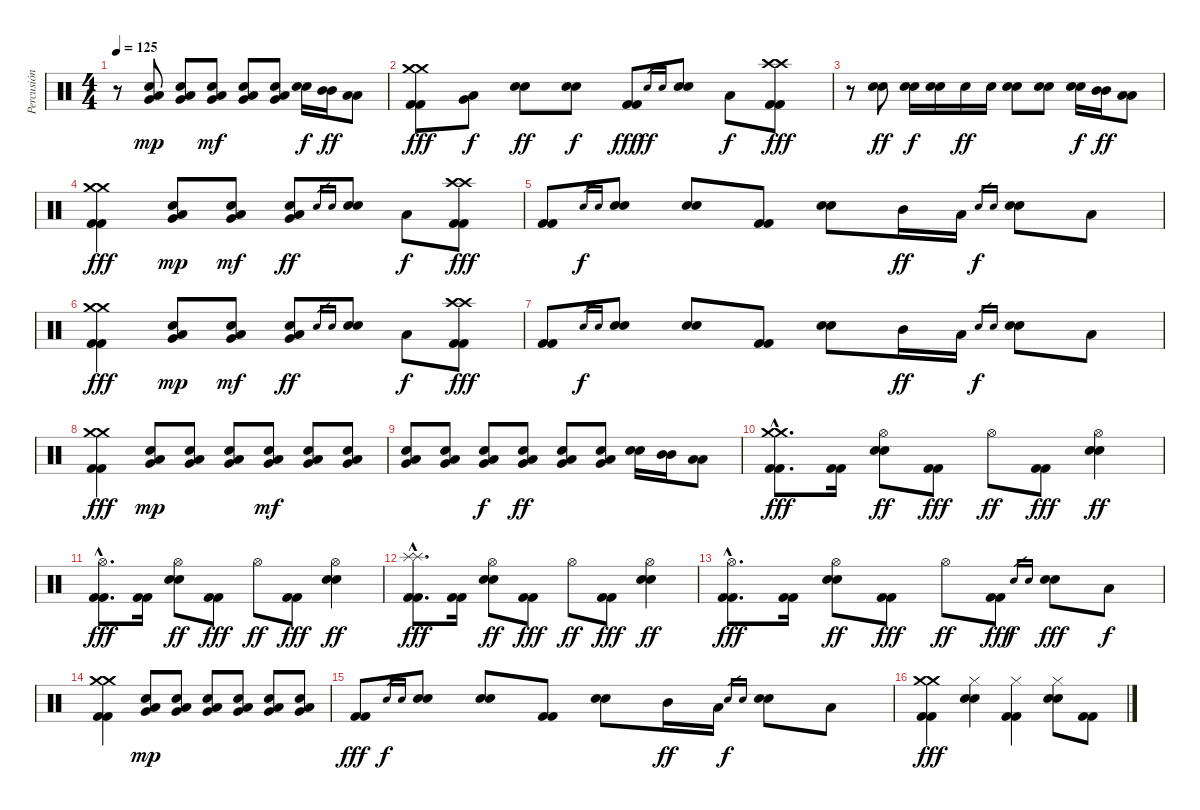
\track ("Percusión" "Percusión") {instrument percussion}
\staff {score}
\articulation defaults
\ts (4 4)
\tempo 125
\clef neutral
\ks c
r.8{dy fff} ("Electric Snare (hit)" "Low Tom (hit)" "Very Low Tom (hit)").8{dy mp} ("Electric Snare (hit)" "Low Tom (hit)" "Very Low Tom (hit)").8 ("Electric Snare (hit)" "Low Tom (hit)" "Very Low Tom (hit)").8{dy mf} ("Electric Snare (hit)" "Low Tom (hit)" "Very Low Tom (hit)").8 ("Electric Snare (hit)" "Low Tom (hit)" "Very Low Tom (hit)").8 ("Electric Snare (hit)" "Electric Snare (hit)").16{dy f} ("Mid Tom (hit)" "Mid Tom (hit)").16{dy ff} ("Low Tom (hit)" "Low Tom (hit)").8 |
("Crash medium (hit)" "Crash medium (hit)" "Kick (hit) 2" "Kick (hit) 2").8{dy fff} ("Very Low Tom (hit)" "Low Tom (hit)").8{dy f} ("Electric Snare (hit)" "Electric Snare (hit)").8{dy ff} ("Electric Snare (hit)" "Electric Snare (hit)").8{dy f} ("Kick (hit) 2" "Kick (hit) 2").8{dy fff} "Electric Snare (hit)".16{gr dy ff} "Electric Snare (hit)".16{gr} ("Electric Snare (hit)" "Electric Snare (hit)").8 "Low Tom (hit)".8{dy f} ("Crash high (hit)" "Crash high (hit)" "Kick (hit) 2" "Kick (hit) 2").8{dy fff} |
r.8 ("Electric Snare (hit)" "Electric Snare (hit)").8{dy ff} ("Electric Snare (hit)" "Electric Snare (hit)").16{dy f} ("Electric Snare (hit)" "Electric Snare (hit)").16 "Electric Snare (hit)".16{dy ff} "Electric Snare (hit)".16 ("Electric Snare (hit)" "Electric Snare (hit)").8 ("Electric Snare (hit)" "Electric Snare (hit)").8 ("Electric Snare (hit)" "Electric Snare (hit)").16{dy f} ("Mid Tom (hit)" "Mid Tom (hit)").16{dy ff} ("Low Tom (hit)" "Low Tom (hit)").8 |
("Crash medium (hit)" "Crash medium (hit)" "Kick (hit) 2" "Kick (hit) 2").4{dy fff} ("Electric Snare (hit)" "Low Tom (hit)" "Very Low Tom (hit)").8{dy mp} ("Electric Snare (hit)" "Low Tom (hit)" "Very Low Tom (hit)").8{dy mf} ("Electric Snare (hit)" "Low Tom (hit)" "Very Low Tom (hit)").8{dy ff} "Electric Snare (hit)".16{gr} "Electric Snare (hit)".16{gr} ("Electric Snare (hit)" "Electric Snare (hit)").8 "Low Tom (hit)".8{dy f} ("Crash high (hit)" "Crash high (hit)" "Kick (hit) 2" "Kick (hit) 2").8{dy fff} |
("Kick (hit) 2" "Kick (hit) 2").8 "Electric Snare (hit)".16{gr dy f} "Electric Snare (hit)".16{gr} ("Electric Snare (hit)" "Electric Snare (hit)").8 ("Electric Snare (hit)" "Electric Snare (hit)").8 ("Kick (hit) 2" "Kick (hit) 2").8 ("Electric Snare (hit)" "Electric Snare (hit)").8 "Mid Tom (hit)".16{dy ff} "Low Tom (hit)".16 "Electric Snare (hit)".16{gr dy f} "Electric Snare (hit)".16{gr} ("Electric Snare (hit)" "Electric Snare (hit)").8 "Low Tom (hit)".8 |
("Crash medium (hit)" "Crash medium (hit)" "Kick (hit) 2" "Kick (hit) 2").4{dy fff} ("Electric Snare (hit)" "Low Tom (hit)" "Very Low Tom (hit)").8{dy mp} ("Electric Snare (hit)" "Low Tom (hit)" "Very Low Tom (hit)").8{dy mf} ("Electric Snare (hit)" "Low Tom (hit)" "Very Low Tom (hit)").8{dy ff} "Electric Snare (hit)".16{gr} "Electric Snare (hit)".16{gr} ("Electric Snare (hit)" "Electric Snare (hit)").8 "Low Tom (hit)".8{dy f} ("Crash high (hit)" "Crash high (hit)" "Kick (hit) 2" "Kick (hit) 2").8{dy fff} |
("Kick (hit) 2" "Kick (hit) 2").8 "Electric Snare (hit)".16{gr dy f} "Electric Snare (hit)".16{gr} ("Electric Snare (hit)" "Electric Snare (hit)").8 ("Electric Snare (hit)" "Electric Snare (hit)").8 ("Kick (hit) 2" "Kick (hit) 2").8 ("Electric Snare (hit)" "Electric Snare (hit)").8 "Mid Tom (hit)".16{dy ff} "Low Tom (hit)".16 "Electric Snare (hit)".16{gr dy f} "Electric Snare (hit)".16{gr} ("Electric Snare (hit)" "Electric Snare (hit)").8 "Low Tom (hit)".8 |
("Crash medium (hit)" "Crash medium (hit)" "Kick (hit) 2" "Kick (hit) 2").4{dy fff} ("Electric Snare (hit)" "Low Tom (hit)" "Very Low Tom (hit)").8{dy mp} ("Electric Snare (hit)" "Low Tom (hit)" "Very Low Tom (hit)").8 ("Electric Snare (hit)" "Low Tom (hit)" "Very Low Tom (hit)").8 ("Electric Snare (hit)" "Low Tom (hit)" "Very Low Tom (hit)").8{dy mf} ("Electric Snare (hit)" "Low Tom (hit)" "Very Low Tom (hit)").8 ("Electric Snare (hit)" "Low Tom (hit)" "Very Low Tom (hit)").8 |
("Electric Snare (hit)" "Low Tom (hit)" "Very Low Tom (hit)").8 ("Electric Snare (hit)" "Low Tom (hit)" "Very Low Tom (hit)").8 ("Electric Snare (hit)" "Low Tom (hit)" "Very Low Tom (hit)").8{dy f} ("Electric Snare (hit)" "Low Tom (hit)" "Very Low Tom (hit)").8{dy ff} ("Electric Snare (hit)" "Low Tom (hit)" "Very Low Tom (hit)").8 ("Electric Snare (hit)" "Low Tom (hit)" "Very Low Tom (hit)").8 ("Electric Snare (hit)" "Electric Snare (hit)").16 ("Mid Tom (hit)" "Mid Tom (hit)").16 ("Low Tom (hit)" "Low Tom (hit)").8 |
("Crash medium (hit)"{hac} "Crash medium (hit)"{hac} "Kick (hit) 2"{hac} "Kick (hit) 2"{hac}).8{d dy fff} ("Kick (hit) 2" "Kick (hit) 2").16 ("Hi-Hat (open)" "Electric Snare (hit)" "Electric Snare (hit)").8{dy ff} ("Kick (hit) 2" "Kick (hit) 2").8{dy fff} "Hi-Hat (open)".8{dy ff} ("Kick (hit) 2" "Kick (hit) 2").8{dy fff} ("Hi-Hat (open)" "Electric Snare (hit)" "Electric Snare (hit)").4{dy ff} |
("Hi-Hat (open)"{hac} "Kick (hit) 2"{hac} "Kick (hit) 2"{hac}).8{d dy fff} ("Kick (hit) 2" "Kick (hit) 2").16 ("Hi-Hat (open)" "Electric Snare (hit)" "Electric Snare (hit)").8{dy ff} ("Kick (hit) 2" "Kick (hit) 2").8{dy fff} "Hi-Hat (open)".8{dy ff} ("Kick (hit) 2" "Kick (hit) 2").8{dy fff} ("Hi-Hat (open)" "Electric Snare (hit)" "Electric Snare (hit)").4{dy ff} |
("Splash (hit)"{hac} "Splash (hit)"{hac} "Kick (hit) 2"{hac} "Kick (hit) 2"{hac}).8{d dy fff} ("Kick (hit) 2" "Kick (hit) 2").16 ("Hi-Hat (open)" "Electric Snare (hit)" "Electric Snare (hit)").8{dy ff} ("Kick (hit) 2" "Kick (hit) 2").8{dy fff} "Hi-Hat (open)".8{dy ff} ("Kick (hit) 2" "Kick (hit) 2").8{dy fff} ("Hi-Hat (open)" "Electric Snare (hit)" "Electric Snare (hit)").4{dy ff} |
("Hi-Hat (open)"{hac} "Kick (hit) 2"{hac} "Kick (hit) 2"{hac}).8{d dy fff} ("Kick (hit) 2" "Kick (hit) 2").16 ("Hi-Hat (open)" "Electric Snare (hit)" "Electric Snare (hit)").8{dy ff} ("Kick (hit) 2" "Kick (hit) 2").8{dy fff} "Hi-Hat (open)".8{dy ff} ("Kick (hit) 2" "Kick (hit) 2").8{dy fff} "Electric Snare (hit)".16{gr dy f} "Electric Snare (hit)".16{gr} ("Electric Snare (hit)" "Electric Snare (hit)").8{dy fff} "Low Tom (hit)".8{dy f} |
("Crash medium (hit)" "Crash medium (hit)" "Kick (hit) 2" "Kick (hit) 2").4 ("Electric Snare (hit)" "Low Tom (hit)" "Very Low Tom (hit)").8{dy mp} ("Electric Snare (hit)" "Low Tom (hit)" "Very Low Tom (hit)").8 ("Electric Snare (hit)" "Low Tom (hit)" "Very Low Tom (hit)").8 ("Electric Snare (hit)" "Low Tom (hit)" "Very Low Tom (hit)").8 ("Electric Snare (hit)" "Low Tom (hit)" "Very Low Tom (hit)").8 ("Electric Snare (hit)" "Low Tom (hit)" "Very Low Tom (hit)").8 |
("Kick (hit) 2" "Kick (hit) 2").8{dy fff} "Electric Snare (hit)".16{gr dy f} "Electric Snare (hit)".16{gr} ("Electric Snare (hit)" "Electric Snare (hit)").8 ("Electric Snare (hit)" "Electric Snare (hit)").8 ("Kick (hit) 2" "Kick (hit) 2").8 ("Electric Snare (hit)" "Electric Snare (hit)").8 "Mid Tom (hit)".16{dy ff} "Low Tom (hit)".16 "Electric Snare (hit)".16{gr dy f} "Electric Snare (hit)".16{gr} ("Electric Snare (hit)" "Electric Snare (hit)").8 "Low Tom (hit)".8 |
("Crash medium (hit)" "Crash medium (hit)" "Kick (hit) 2" "Kick (hit) 2").4{dy fff} ("Hi-Hat (closed)" "Electric Snare (hit)" "Electric Snare (hit)").4 ("Hi-Hat (closed)" "Kick (hit) 2" "Kick (hit) 2").4 ("Hi-Hat (closed)" "Electric Snare (hit)" "Electric Snare (hit)").8 ("Kick (hit) 2" "Kick (hit) 2").8
